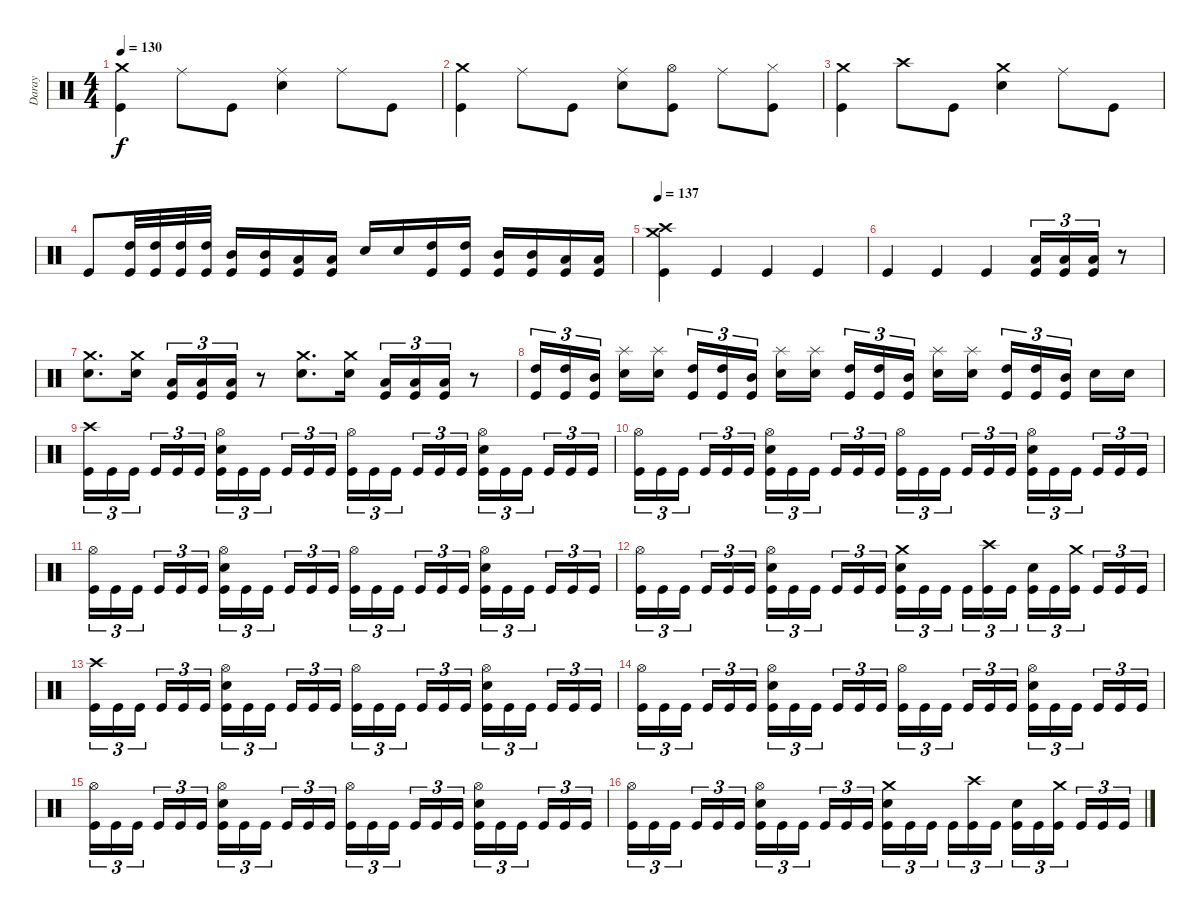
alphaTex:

\track ("Daray" "Daray") {instrument percussion}
\staff {score}
\articulation defaults
\ts (4 4)
\tempo 130
\clef neutral
\ks c
("Crash medium (hit)" "Kick (hit)").4{dy f} "Ride (middle)".8 "Kick (hit)".8 ("Ride (middle)" "Electric Snare (hit)").4 "Ride (middle)".8 "Kick (hit)".8 |
("Crash medium (hit)" "Kick (hit)").4 "Ride (middle)".8 "Kick (hit)".8 ("Ride (middle)" "Electric Snare (hit)").8 ("Hi-Hat (open)" "Kick (hit)").8 "Ride (middle)".8 ("Hi-Hat (closed)" "Kick (hit)").8 |
("Crash medium (hit)" "Kick (hit)").4 "Crash high (hit)".8 "Kick (hit)".8 ("Crash medium (hit)" "Electric Snare (hit)").4 "Ride (middle)".8 "Kick (hit)".8 |
"Kick (hit)".8 ("High Tom (hit)" "Kick (hit)").32 ("High Tom (hit)" "Kick (hit)").32 ("High Tom (hit)" "Kick (hit)").32 ("High Tom (hit)" "Kick (hit)").32 ("Mid Tom (hit)" "Kick (hit)").16 ("Mid Tom (hit)" "Kick (hit)").16 ("Low Tom (hit)" "Kick (hit)").16 ("Low Tom (hit)" "Kick (hit)").16 "Electric Snare (hit)".16 "Electric Snare (hit)".16 ("High Tom (hit)" "Kick (hit)").16 ("High Tom (hit)" "Kick (hit)").16 ("Mid Tom (hit)" "Kick (hit)").16 ("Mid Tom (hit)" "Kick (hit)").16 ("Low Tom (hit)" "Kick (hit)").16 ("Low Tom (hit)" "Kick (hit)").16 |
\tempo 137
("Crash medium (hit)" "Crash high (hit)" "Kick (hit)").4 "Kick (hit)".4 "Kick (hit)".4 "Kick (hit)".4 |
"Kick (hit)".4 "Kick (hit)".4 "Kick (hit)".4 ("Low Tom (hit)" "Kick (hit)").16{tu (3 2)} ("Low Tom (hit)" "Kick (hit)").16{tu (3 2)} ("Low Tom (hit)" "Kick (hit)").16{tu (3 2)} r.8 |
("Crash medium (hit)" "Electric Snare (hit)").8{d} ("Crash medium (hit)" "Electric Snare (hit)").16 ("Low Tom (hit)" "Kick (hit)").16{tu (3 2)} ("Low Tom (hit)" "Kick (hit)").16{tu (3 2)} ("Low Tom (hit)" "Kick (hit)").16{tu (3 2)} r.8 ("Crash medium (hit)" "Electric Snare (hit)").8{d} ("Crash medium (hit)" "Electric Snare (hit)").16 ("Low Tom (hit)" "Kick (hit)").16{tu (3 2)} ("Low Tom (hit)" "Kick (hit)").16{tu (3 2)} ("Low Tom (hit)" "Kick (hit)").16{tu (3 2)} r.8 |
("High Tom (hit)" "Kick (hit)").16{tu (3 2)} ("High Tom (hit)" "Kick (hit)").16{tu (3 2)} ("Mid Tom (hit)" "Kick (hit)").16{tu (3 2) beam splitsecondary} ("Splash (hit)" "Electric Snare (hit)").16 ("Splash (hit)" "Electric Snare (hit)").16 ("High Tom (hit)" "Kick (hit)").16{tu (3 2)} ("High Tom (hit)" "Kick (hit)").16{tu (3 2)} ("Mid Tom (hit)" "Kick (hit)").16{tu (3 2) beam splitsecondary} ("Splash (hit)" "Electric Snare (hit)").16 ("Splash (hit)" "Electric Snare (hit)").16 ("High Tom (hit)" "Kick (hit)").16{tu (3 2)} ("High Tom (hit)" "Kick (hit)").16{tu (3 2)} ("Mid Tom (hit)" "Kick (hit)").16{tu (3 2) beam splitsecondary} ("Splash (hit)" "Electric Snare (hit)").16 ("Splash (hit)" "Electric Snare (hit)").16 ("High Tom (hit)" "Kick (hit)").16{tu (3 2)} ("High Tom (hit)" "Kick (hit)").16{tu (3 2)} ("Mid Tom (hit)" "Kick (hit)").16{tu (3 2) beam splitsecondary} "Electric Snare (hit)".16 "Electric Snare (hit)".16 |
("Crash high (hit)" "Kick (hit)").16{tu (3 2)} "Kick (hit)".16{tu (3 2)} "Kick (hit)".16{tu (3 2) beam splitsecondary} "Kick (hit)".16{tu (3 2)} "Kick (hit)".16{tu (3 2)} "Kick (hit)".16{tu (3 2)} ("Hi-Hat (open)" "Electric Snare (hit)" "Kick (hit)").16{tu (3 2)} "Kick (hit)".16{tu (3 2)} "Kick (hit)".16{tu (3 2) beam splitsecondary} "Kick (hit)".16{tu (3 2)} "Kick (hit)".16{tu (3 2)} "Kick (hit)".16{tu (3 2)} ("Hi-Hat (open)" "Kick (hit)").16{tu (3 2)} "Kick (hit)".16{tu (3 2)} "Kick (hit)".16{tu (3 2) beam splitsecondary} "Kick (hit)".16{tu (3 2)} "Kick (hit)".16{tu (3 2)} "Kick (hit)".16{tu (3 2)} ("Hi-Hat (open)" "Electric Snare (hit)" "Kick (hit)").16{tu (3 2)} "Kick (hit)".16{tu (3 2)} "Kick (hit)".16{tu (3 2) beam splitsecondary} "Kick (hit)".16{tu (3 2)} "Kick (hit)".16{tu (3 2)} "Kick (hit)".16{tu (3 2)} |
("Hi-Hat (open)" "Kick (hit)").16{tu (3 2)} "Kick (hit)".16{tu (3 2)} "Kick (hit)".16{tu (3 2) beam splitsecondary} "Kick (hit)".16{tu (3 2)} "Kick (hit)".16{tu (3 2)} "Kick (hit)".16{tu (3 2)} ("Hi-Hat (open)" "Electric Snare (hit)" "Kick (hit)").16{tu (3 2)} "Kick (hit)".16{tu (3 2)} "Kick (hit)".16{tu (3 2) beam splitsecondary} "Kick (hit)".16{tu (3 2)} "Kick (hit)".16{tu (3 2)} "Kick (hit)".16{tu (3 2)} ("Hi-Hat (open)" "Kick (hit)").16{tu (3 2)} "Kick (hit)".16{tu (3 2)} "Kick (hit)".16{tu (3 2) beam splitsecondary} "Kick (hit)".16{tu (3 2)} "Kick (hit)".16{tu (3 2)} "Kick (hit)".16{tu (3 2)} ("Hi-Hat (open)" "Electric Snare (hit)" "Kick (hit)").16{tu (3 2)} "Kick (hit)".16{tu (3 2)} "Kick (hit)".16{tu (3 2) beam splitsecondary} "Kick (hit)".16{tu (3 2)} "Kick (hit)".16{tu (3 2)} "Kick (hit)".16{tu (3 2)} |
("Hi-Hat (open)" "Kick (hit)").16{tu (3 2)} "Kick (hit)".16{tu (3 2)} "Kick (hit)".16{tu (3 2) beam splitsecondary} "Kick (hit)".16{tu (3 2)} "Kick (hit)".16{tu (3 2)} "Kick (hit)".16{tu (3 2)} ("Hi-Hat (open)" "Electric Snare (hit)" "Kick (hit)").16{tu (3 2)} "Kick (hit)".16{tu (3 2)} "Kick (hit)".16{tu (3 2) beam splitsecondary} "Kick (hit)".16{tu (3 2)} "Kick (hit)".16{tu (3 2)} "Kick (hit)".16{tu (3 2)} ("Hi-Hat (open)" "Kick (hit)").16{tu (3 2)} "Kick (hit)".16{tu (3 2)} "Kick (hit)".16{tu (3 2) beam splitsecondary} "Kick (hit)".16{tu (3 2)} "Kick (hit)".16{tu (3 2)} "Kick (hit)".16{tu (3 2)} ("Hi-Hat (open)" "Electric Snare (hit)" "Kick (hit)").16{tu (3 2)} "Kick (hit)".16{tu (3 2)} "Kick (hit)".16{tu (3 2) beam splitsecondary} "Kick (hit)".16{tu (3 2)} "Kick (hit)".16{tu (3 2)} "Kick (hit)".16{tu (3 2)} |
("Hi-Hat (open)" "Kick (hit)").16{tu (3 2)} "Kick (hit)".16{tu (3 2)} "Kick (hit)".16{tu (3 2) beam splitsecondary} "Kick (hit)".16{tu (3 2)} "Kick (hit)".16{tu (3 2)} "Kick (hit)".16{tu (3 2)} ("Hi-Hat (open)" "Electric Snare (hit)" "Kick (hit)").16{tu (3 2)} "Kick (hit)".16{tu (3 2)} "Kick (hit)".16{tu (3 2) beam splitsecondary} "Kick (hit)".16{tu (3 2)} "Kick (hit)".16{tu (3 2)} "Kick (hit)".16{tu (3 2)} ("Crash medium (hit)" "Electric Snare (hit)" "Kick (hit)").16{tu (3 2)} "Kick (hit)".16{tu (3 2)} "Kick (hit)".16{tu (3 2) beam splitsecondary} "Kick (hit)".16{tu (3 2)} ("Crash high (hit)" "Kick (hit)").16{tu (3 2)} "Kick (hit)".16{tu (3 2)} ("Electric Snare (hit)" "Kick (hit)").16{tu (3 2)} "Kick (hit)".16{tu (3 2)} ("Crash medium (hit)" "Kick (hit)").16{tu (3 2) beam splitsecondary} "Kick (hit)".16{tu (3 2)} "Kick (hit)".16{tu (3 2)} "Kick (hit)".16{tu (3 2)} |
("Crash high (hit)" "Kick (hit)").16{tu (3 2)} "Kick (hit)".16{tu (3 2)} "Kick (hit)".16{tu (3 2) beam splitsecondary} "Kick (hit)".16{tu (3 2)} "Kick (hit)".16{tu (3 2)} "Kick (hit)".16{tu (3 2)} ("Hi-Hat (open)" "Electric Snare (hit)" "Kick (hit)").16{tu (3 2)} "Kick (hit)".16{tu (3 2)} "Kick (hit)".16{tu (3 2) beam splitsecondary} "Kick (hit)".16{tu (3 2)} "Kick (hit)".16{tu (3 2)} "Kick (hit)".16{tu (3 2)} ("Hi-Hat (open)" "Kick (hit)").16{tu (3 2)} "Kick (hit)".16{tu (3 2)} "Kick (hit)".16{tu (3 2) beam splitsecondary} "Kick (hit)".16{tu (3 2)} "Kick (hit)".16{tu (3 2)} "Kick (hit)".16{tu (3 2)} ("Hi-Hat (open)" "Electric Snare (hit)" "Kick (hit)").16{tu (3 2)} "Kick (hit)".16{tu (3 2)} "Kick (hit)".16{tu (3 2) beam splitsecondary} "Kick (hit)".16{tu (3 2)} "Kick (hit)".16{tu (3 2)} "Kick (hit)".16{tu (3 2)} |
("Hi-Hat (open)" "Kick (hit)").16{tu (3 2)} "Kick (hit)".16{tu (3 2)} "Kick (hit)".16{tu (3 2) beam splitsecondary} "Kick (hit)".16{tu (3 2)} "Kick (hit)".16{tu (3 2)} "Kick (hit)".16{tu (3 2)} ("Hi-Hat (open)" "Electric Snare (hit)" "Kick (hit)").16{tu (3 2)} "Kick (hit)".16{tu (3 2)} "Kick (hit)".16{tu (3 2) beam splitsecondary} "Kick (hit)".16{tu (3 2)} "Kick (hit)".16{tu (3 2)} "Kick (hit)".16{tu (3 2)} ("Hi-Hat (open)" "Kick (hit)").16{tu (3 2)} "Kick (hit)".16{tu (3 2)} "Kick (hit)".16{tu (3 2) beam splitsecondary} "Kick (hit)".16{tu (3 2)} "Kick (hit)".16{tu (3 2)} "Kick (hit)".16{tu (3 2)} ("Hi-Hat (open)" "Electric Snare (hit)" "Kick (hit)").16{tu (3 2)} "Kick (hit)".16{tu (3 2)} "Kick (hit)".16{tu (3 2) beam splitsecondary} "Kick (hit)".16{tu (3 2)} "Kick (hit)".16{tu (3 2)} "Kick (hit)".16{tu (3 2)} |
("Hi-Hat (open)" "Kick (hit)").16{tu (3 2)} "Kick (hit)".16{tu (3 2)} "Kick (hit)".16{tu (3 2) beam splitsecondary} "Kick (hit)".16{tu (3 2)} "Kick (hit)".16{tu (3 2)} "Kick (hit)".16{tu (3 2)} ("Hi-Hat (open)" "Electric Snare (hit)" "Kick (hit)").16{tu (3 2)} "Kick (hit)".16{tu (3 2)} "Kick (hit)".16{tu (3 2) beam splitsecondary} "Kick (hit)".16{tu (3 2)} "Kick (hit)".16{tu (3 2)} "Kick (hit)".16{tu (3 2)} ("Hi-Hat (open)" "Kick (hit)").16{tu (3 2)} "Kick (hit)".16{tu (3 2)} "Kick (hit)".16{tu (3 2) beam splitsecondary} "Kick (hit)".16{tu (3 2)} "Kick (hit)".16{tu (3 2)} "Kick (hit)".16{tu (3 2)} ("Hi-Hat (open)" "Electric Snare (hit)" "Kick (hit)").16{tu (3 2)} "Kick (hit)".16{tu (3 2)} "Kick (hit)".16{tu (3 2) beam splitsecondary} "Kick (hit)".16{tu (3 2)} "Kick (hit)".16{tu (3 2)} "Kick (hit)".16{tu (3 2)} |
("Hi-Hat (open)" "Kick (hit)").16{tu (3 2)} "Kick (hit)".16{tu (3 2)} "Kick (hit)".16{tu (3 2) beam splitsecondary} "Kick (hit)".16{tu (3 2)} "Kick (hit)".16{tu (3 2)} "Kick (hit)".16{tu (3 2)} ("Hi-Hat (open)" "Electric Snare (hit)" "Kick (hit)").16{tu (3 2)} "Kick (hit)".16{tu (3 2)} "Kick (hit)".16{tu (3 2) beam splitsecondary} "Kick (hit)".16{tu (3 2)} "Kick (hit)".16{tu (3 2)} "Kick (hit)".16{tu (3 2)} ("Crash medium (hit)" "Electric Snare (hit)" "Kick (hit)").16{tu (3 2)} "Kick (hit)".16{tu (3 2)} "Kick (hit)".16{tu (3 2) beam splitsecondary} "Kick (hit)".16{tu (3 2)} ("Crash high (hit)" "Kick (hit)").16{tu (3 2)} "Kick (hit)".16{tu (3 2)} ("Electric Snare (hit)" "Kick (hit)").16{tu (3 2)} "Kick (hit)".16{tu (3 2)} ("Crash medium (hit)" "Kick (hit)").16{tu (3 2) beam splitsecondary} "Kick (hit)".16{tu (3 2)} "Kick (hit)".16{tu (3 2)} "Kick (hit)".16{tu (3 2)}
